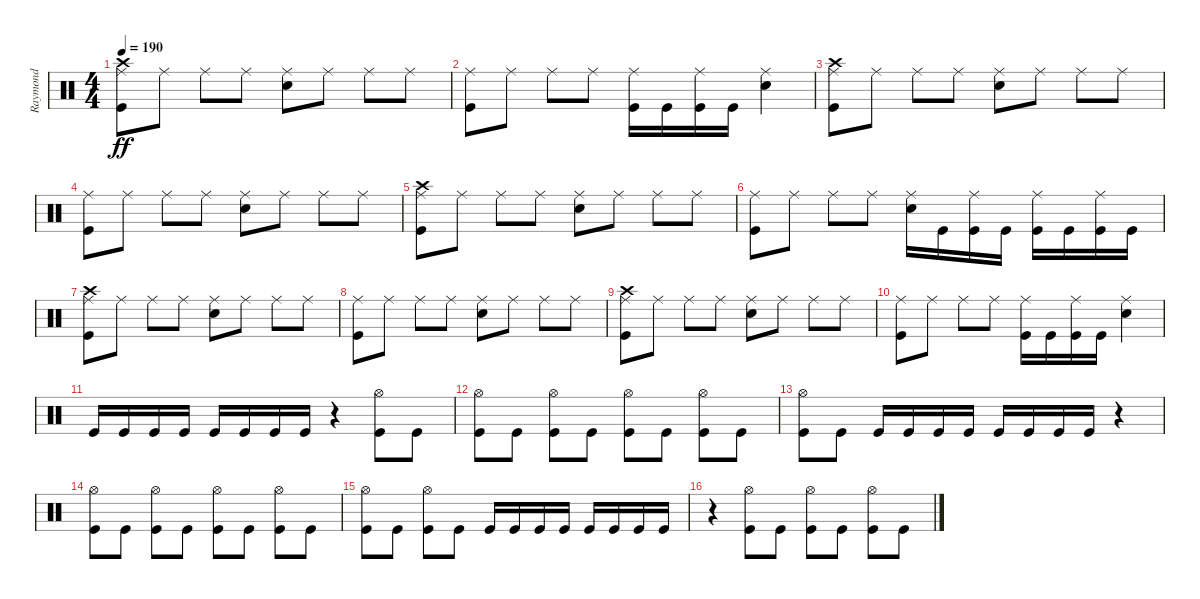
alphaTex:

\track ("Raymond" "Raymond") {instrument percussion}
\staff {score}
\articulation defaults
\ts (4 4)
\tempo 190
\clef neutral
\ks c
("Kick (hit)" "Crash high (hit)" "Ride (middle)").8{dy ff} "Ride (middle)".8 "Ride (middle)".8 "Ride (middle)".8 ("Snare (hit) 2" "Ride (middle)").8 "Ride (middle)".8 "Ride (middle)".8 "Ride (middle)".8 |
("Kick (hit)" "Ride (middle)").8 "Ride (middle)".8 "Ride (middle)".8 "Ride (middle)".8 ("Kick (hit)" "Ride (middle)").16 "Kick (hit)".16 ("Kick (hit)" "Ride (middle)").16 "Kick (hit)".16 ("Snare (hit) 2" "Ride (middle)").4 |
("Kick (hit)" "Crash high (hit)" "Ride (middle)").8 "Ride (middle)".8 "Ride (middle)".8 "Ride (middle)".8 ("Snare (hit) 2" "Ride (middle)").8 "Ride (middle)".8 "Ride (middle)".8 "Ride (middle)".8 |
("Kick (hit)" "Ride (middle)").8 "Ride (middle)".8 "Ride (middle)".8 "Ride (middle)".8 ("Snare (hit) 2" "Ride (middle)").8 "Ride (middle)".8 "Ride (middle)".8 "Ride (middle)".8 |
("Kick (hit)" "Crash high (hit)" "Ride (middle)").8 "Ride (middle)".8 "Ride (middle)".8 "Ride (middle)".8 ("Snare (hit) 2" "Ride (middle)").8 "Ride (middle)".8 "Ride (middle)".8 "Ride (middle)".8 |
("Kick (hit)" "Ride (middle)").8 "Ride (middle)".8 "Ride (middle)".8 "Ride (middle)".8 ("Snare (hit) 2" "Ride (middle)").16 "Kick (hit)".16 ("Kick (hit)" "Ride (middle)").16 "Kick (hit)".16 ("Kick (hit)" "Ride (middle)").16 "Kick (hit)".16 ("Kick (hit)" "Ride (middle)").16 "Kick (hit)".16 |
("Kick (hit)" "Crash high (hit)" "Ride (middle)").8 "Ride (middle)".8 "Ride (middle)".8 "Ride (middle)".8 ("Snare (hit) 2" "Ride (middle)").8 "Ride (middle)".8 "Ride (middle)".8 "Ride (middle)".8 |
("Kick (hit)" "Ride (middle)").8 "Ride (middle)".8 "Ride (middle)".8 "Ride (middle)".8 ("Snare (hit) 2" "Ride (middle)").8 "Ride (middle)".8 "Ride (middle)".8 "Ride (middle)".8 |
("Kick (hit)" "Crash high (hit)" "Ride (middle)").8 "Ride (middle)".8 "Ride (middle)".8 "Ride (middle)".8 ("Snare (hit) 2" "Ride (middle)").8 "Ride (middle)".8 "Ride (middle)".8 "Ride (middle)".8 |
("Kick (hit)" "Ride (middle)").8 "Ride (middle)".8 "Ride (middle)".8 "Ride (middle)".8 ("Kick (hit)" "Ride (middle)").16 "Kick (hit)".16 ("Kick (hit)" "Ride (middle)").16 "Kick (hit)".16 ("Snare (hit) 2" "Ride (middle)").4 |
"Kick (hit)".16 "Kick (hit)".16 "Kick (hit)".16 "Kick (hit)".16 "Kick (hit)".16 "Kick (hit)".16 "Kick (hit)".16 "Kick (hit)".16 r.4 ("Kick (hit)" "Hi-Hat (open)").8 "Kick (hit)".8 |
("Kick (hit)" "Hi-Hat (open)").8 "Kick (hit)".8 ("Kick (hit)" "Hi-Hat (open)").8 "Kick (hit)".8 ("Kick (hit)" "Hi-Hat (open)").8 "Kick (hit)".8 ("Kick (hit)" "Hi-Hat (open)").8 "Kick (hit)".8 |
("Kick (hit)" "Hi-Hat (open)").8 "Kick (hit)".8 "Kick (hit)".16 "Kick (hit)".16 "Kick (hit)".16 "Kick (hit)".16 "Kick (hit)".16 "Kick (hit)".16 "Kick (hit)".16 "Kick (hit)".16 r.4 |
("Kick (hit)" "Hi-Hat (open)").8 "Kick (hit)".8 ("Kick (hit)" "Hi-Hat (open)").8 "Kick (hit)".8 ("Kick (hit)" "Hi-Hat (open)").8 "Kick (hit)".8 ("Kick (hit)" "Hi-Hat (open)").8 "Kick (hit)".8 |
("Kick (hit)" "Hi-Hat (open)").8 "Kick (hit)".8 ("Kick (hit)" "Hi-Hat (open)").8 "Kick (hit)".8 "Kick (hit)".16 "Kick (hit)".16 "Kick (hit)".16 "Kick (hit)".16 "Kick (hit)".16 "Kick (hit)".16 "Kick (hit)".16 "Kick (hit)".16 |
r.4 ("Kick (hit)" "Hi-Hat (open)").8 "Kick (hit)".8 ("Kick (hit)" "Hi-Hat (open)").8 "Kick (hit)".8 ("Kick (hit)" "Hi-Hat (open)").8 "Kick (hit)".8
